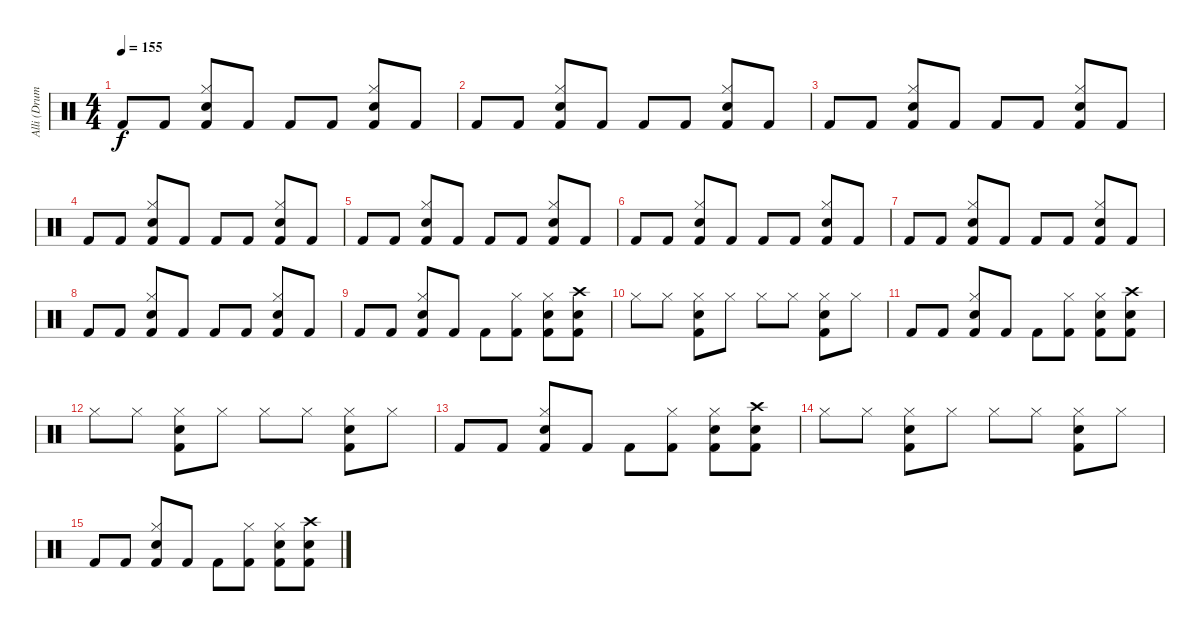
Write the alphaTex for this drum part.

\track ("Alli (Drums)" "Alli (Drum") {instrument percussion}
\staff {score}
\articulation defaults
\ts (4 4)
\tempo 155
\clef neutral
\ks c "Kick (hit) 2".8{dy f} "Kick (hit) 2".8
("Hi-Hat (closed)" "Snare (hit) 2" "Kick (hit) 2").8 "Kick (hit) 2".8 "Kick (hit) 2".8 "Kick (hit) 2".8 ("Hi-Hat (closed)" "Snare (hit) 2" "Kick (hit) 2").8 "Kick (hit) 2".8 |
"Kick (hit) 2".8 "Kick (hit) 2".8 ("Hi-Hat (closed)" "Snare (hit) 2" "Kick (hit) 2").8 "Kick (hit) 2".8 "Kick (hit) 2".8 "Kick (hit) 2".8 ("Hi-Hat (closed)" "Snare (hit) 2" "Kick (hit) 2").8 "Kick (hit) 2".8 |
"Kick (hit) 2".8 "Kick (hit) 2".8 ("Hi-Hat (closed)" "Snare (hit) 2" "Kick (hit) 2").8 "Kick (hit) 2".8 "Kick (hit) 2".8 "Kick (hit) 2".8 ("Hi-Hat (closed)" "Snare (hit) 2" "Kick (hit) 2").8 "Kick (hit) 2".8 |
"Kick (hit) 2".8 "Kick (hit) 2".8 ("Hi-Hat (closed)" "Snare (hit) 2" "Kick (hit) 2").8 "Kick (hit) 2".8 "Kick (hit) 2".8 "Kick (hit) 2".8 ("Hi-Hat (closed)" "Snare (hit) 2" "Kick (hit) 2").8 "Kick (hit) 2".8 |
"Kick (hit) 2".8 "Kick (hit) 2".8 ("Hi-Hat (closed)" "Snare (hit) 2" "Kick (hit) 2").8 "Kick (hit) 2".8 "Kick (hit) 2".8 "Kick (hit) 2".8 ("Hi-Hat (closed)" "Snare (hit) 2" "Kick (hit) 2").8 "Kick (hit) 2".8 |
"Kick (hit) 2".8 "Kick (hit) 2".8 ("Hi-Hat (closed)" "Snare (hit) 2" "Kick (hit) 2").8 "Kick (hit) 2".8 "Kick (hit) 2".8 "Kick (hit) 2".8 ("Hi-Hat (closed)" "Snare (hit) 2" "Kick (hit) 2").8 "Kick (hit) 2".8 |
"Kick (hit) 2".8 "Kick (hit) 2".8 ("Hi-Hat (closed)" "Snare (hit) 2" "Kick (hit) 2").8 "Kick (hit) 2".8 "Kick (hit) 2".8 "Kick (hit) 2".8 ("Hi-Hat (closed)" "Snare (hit) 2" "Kick (hit) 2").8 "Kick (hit) 2".8 |
"Kick (hit) 2".8 "Kick (hit) 2".8 ("Hi-Hat (closed)" "Snare (hit) 2" "Kick (hit) 2").8 "Kick (hit) 2".8 "Kick (hit) 2".8 "Kick (hit) 2".8 ("Hi-Hat (closed)" "Snare (hit) 2" "Kick (hit) 2").8 "Kick (hit) 2".8 |
"Kick (hit) 2".8 "Kick (hit) 2".8 ("Hi-Hat (closed)" "Snare (hit) 2" "Kick (hit) 2").8 "Kick (hit) 2".8 "Kick (hit) 2".8 ("Hi-Hat (closed)" "Kick (hit) 2").8 ("Hi-Hat (closed)" "Snare (hit) 2" "Kick (hit) 2").8 ("Crash high (hit)" "Snare (hit) 2" "Kick (hit) 2").8 |
"Hi-Hat (closed)".8 "Hi-Hat (closed)".8 ("Snare (hit) 2" "Hi-Hat (closed)" "Kick (hit) 2").8 "Hi-Hat (closed)".8 "Hi-Hat (closed)".8 "Hi-Hat (closed)".8 ("Snare (hit) 2" "Hi-Hat (closed)" "Kick (hit) 2").8 "Hi-Hat (closed)".8 |
"Kick (hit) 2".8 "Kick (hit) 2".8 ("Hi-Hat (closed)" "Snare (hit) 2" "Kick (hit) 2").8 "Kick (hit) 2".8 "Kick (hit) 2".8 ("Hi-Hat (closed)" "Kick (hit) 2").8 ("Hi-Hat (closed)" "Snare (hit) 2" "Kick (hit) 2").8 ("Crash high (hit)" "Snare (hit) 2" "Kick (hit) 2").8 |
"Hi-Hat (closed)".8 "Hi-Hat (closed)".8 ("Snare (hit) 2" "Hi-Hat (closed)" "Kick (hit) 2").8 "Hi-Hat (closed)".8 "Hi-Hat (closed)".8 "Hi-Hat (closed)".8 ("Snare (hit) 2" "Hi-Hat (closed)" "Kick (hit) 2").8 "Hi-Hat (closed)".8 |
"Kick (hit) 2".8 "Kick (hit) 2".8 ("Hi-Hat (closed)" "Snare (hit) 2" "Kick (hit) 2").8 "Kick (hit) 2".8 "Kick (hit) 2".8 ("Hi-Hat (closed)" "Kick (hit) 2").8 ("Hi-Hat (closed)" "Snare (hit) 2" "Kick (hit) 2").8 ("Crash high (hit)" "Snare (hit) 2" "Kick (hit) 2").8 |
"Hi-Hat (closed)".8 "Hi-Hat (closed)".8 ("Snare (hit) 2" "Hi-Hat (closed)" "Kick (hit) 2").8 "Hi-Hat (closed)".8 "Hi-Hat (closed)".8 "Hi-Hat (closed)".8 ("Snare (hit) 2" "Hi-Hat (closed)" "Kick (hit) 2").8 "Hi-Hat (closed)".8 |
"Kick (hit) 2".8 "Kick (hit) 2".8 ("Hi-Hat (closed)" "Snare (hit) 2" "Kick (hit) 2").8 "Kick (hit) 2".8 "Kick (hit) 2".8 ("Hi-Hat (closed)" "Kick (hit) 2").8 ("Hi-Hat (closed)" "Snare (hit) 2" "Kick (hit) 2").8 ("Crash high (hit)" "Snare (hit) 2" "Kick (hit) 2").8
